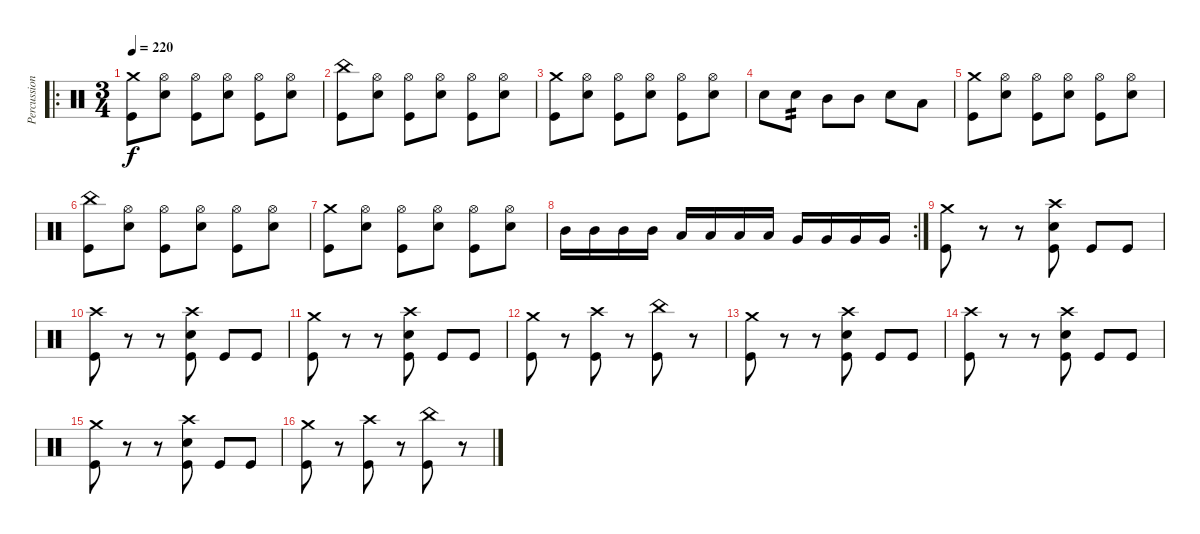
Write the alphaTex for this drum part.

\track ("Percussion" "Percussion") {instrument percussion}
\staff {score}
\articulation defaults
\ro
\ts (3 4)
\tempo 220
\clef neutral
\ks c
("Crash medium (hit)" "Kick (hit)").8{dy f} ("Hi-Hat (open)" "Electric Snare (hit)").8 ("Hi-Hat (open)" "Kick (hit)").8 ("Hi-Hat (open)" "Electric Snare (hit)").8 ("Hi-Hat (open)" "Kick (hit)").8 ("Hi-Hat (open)" "Electric Snare (hit)").8 |
("China (hit)" "Kick (hit)").8 ("Hi-Hat (open)" "Electric Snare (hit)").8 ("Hi-Hat (open)" "Kick (hit)").8 ("Hi-Hat (open)" "Electric Snare (hit)").8 ("Hi-Hat (open)" "Kick (hit)").8 ("Hi-Hat (open)" "Electric Snare (hit)").8 |
("Crash medium (hit)" "Kick (hit)").8 ("Hi-Hat (open)" "Electric Snare (hit)").8 ("Hi-Hat (open)" "Kick (hit)").8 ("Hi-Hat (open)" "Electric Snare (hit)").8 ("Hi-Hat (open)" "Kick (hit)").8 ("Hi-Hat (open)" "Electric Snare (hit)").8 |
"Electric Snare (hit)".8 "Electric Snare (hit)".8{tp 2} "Mid Tom (hit)".8 "Mid Tom (hit)".8 "Electric Snare (hit)".8 "Low Tom (hit)".8 |
("Crash medium (hit)" "Kick (hit)").8 ("Hi-Hat (open)" "Electric Snare (hit)").8 ("Hi-Hat (open)" "Kick (hit)").8 ("Hi-Hat (open)" "Electric Snare (hit)").8 ("Hi-Hat (open)" "Kick (hit)").8 ("Hi-Hat (open)" "Electric Snare (hit)").8 |
("China (hit)" "Kick (hit)").8 ("Hi-Hat (open)" "Electric Snare (hit)").8 ("Hi-Hat (open)" "Kick (hit)").8 ("Hi-Hat (open)" "Electric Snare (hit)").8 ("Hi-Hat (open)" "Kick (hit)").8 ("Hi-Hat (open)" "Electric Snare (hit)").8 |
("Crash medium (hit)" "Kick (hit)").8 ("Hi-Hat (open)" "Electric Snare (hit)").8 ("Hi-Hat (open)" "Kick (hit)").8 ("Hi-Hat (open)" "Electric Snare (hit)").8 ("Hi-Hat (open)" "Kick (hit)").8 ("Hi-Hat (open)" "Electric Snare (hit)").8 |
\rc 2 "Mid Tom (hit)".16 "Mid Tom (hit)".16 "Mid Tom (hit)".16 "Mid Tom (hit)".16 "Low Tom (hit)".16 "Low Tom (hit)".16 "Low Tom (hit)".16 "Low Tom (hit)".16 "Very Low Tom (hit)".16 "Very Low Tom (hit)".16 "Very Low Tom (hit)".16 "Very Low Tom (hit)".16
|
("Crash medium (hit)" "Kick (hit)").8 r.8 r.8 ("Crash high (hit)" "Electric Snare (hit)" "Kick (hit)").8 "Kick (hit)".8 "Kick (hit)".8 |
("Crash high (hit)" "Kick (hit)").8 r.8 r.8 ("Crash high (hit)" "Electric Snare (hit)" "Kick (hit)").8 "Kick (hit)".8 "Kick (hit)".8 |
("Crash medium (hit)" "Kick (hit)").8 r.8 r.8 ("Crash high (hit)" "Electric Snare (hit)" "Kick (hit)").8 "Kick (hit)".8 "Kick (hit)".8 |
("Crash medium (hit)" "Kick (hit)").8 r.8 ("Crash high (hit)" "Kick (hit)").8 r.8 ("China (hit)" "Kick (hit)").8 r.8 |
("Crash medium (hit)" "Kick (hit)").8 r.8 r.8 ("Crash high (hit)" "Electric Snare (hit)" "Kick (hit)").8 "Kick (hit)".8 "Kick (hit)".8 |
("Crash high (hit)" "Kick (hit)").8 r.8 r.8 ("Crash high (hit)" "Electric Snare (hit)" "Kick (hit)").8 "Kick (hit)".8 "Kick (hit)".8 |
("Crash medium (hit)" "Kick (hit)").8 r.8 r.8 ("Crash high (hit)" "Electric Snare (hit)" "Kick (hit)").8 "Kick (hit)".8 "Kick (hit)".8 |
("Crash medium (hit)" "Kick (hit)").8 r.8 ("Crash high (hit)" "Kick (hit)").8 r.8 ("China (hit)" "Kick (hit)").8 r.8
